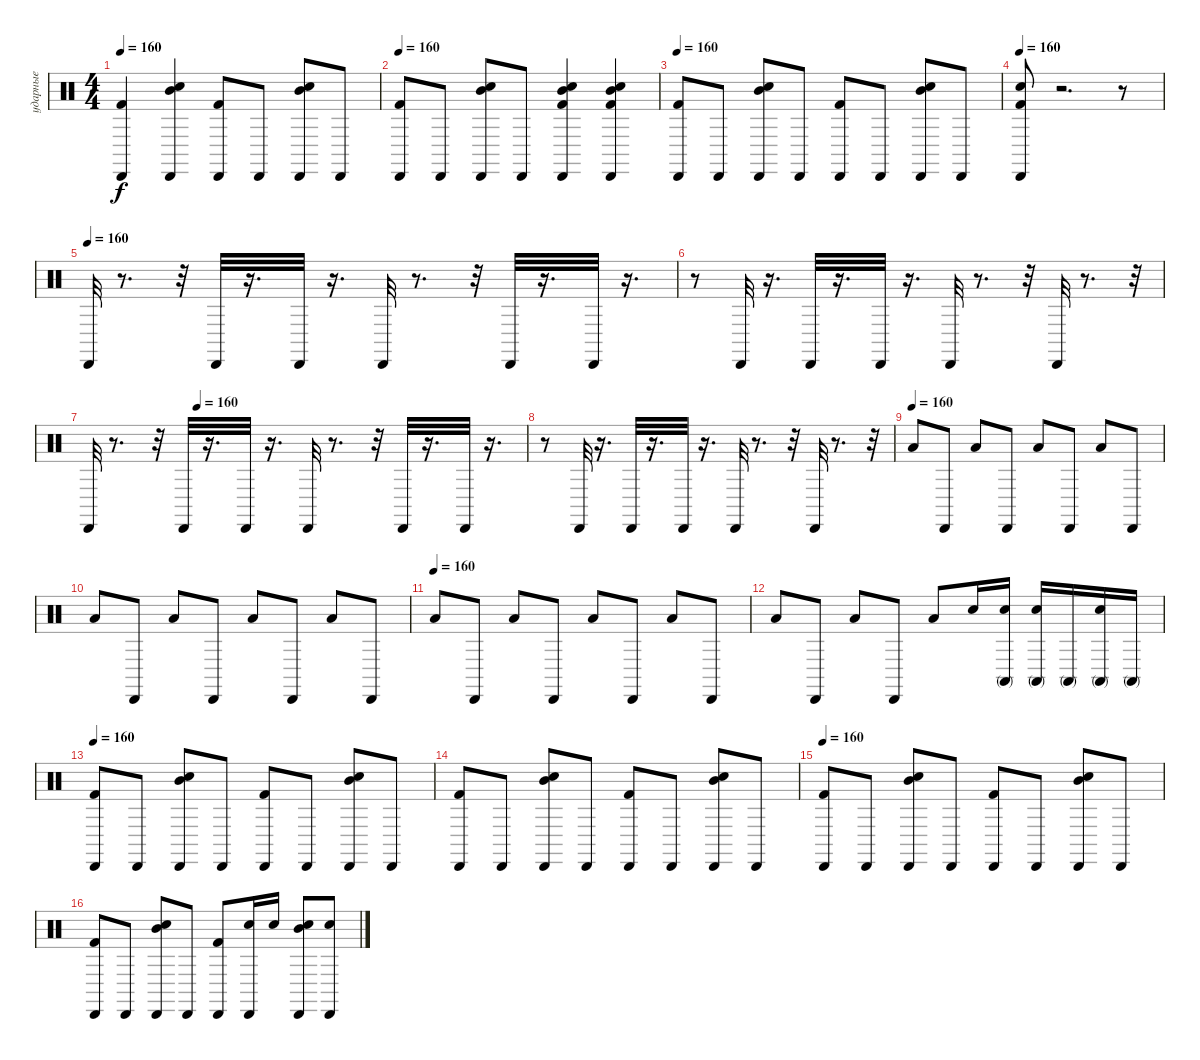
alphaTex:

\track ("ударные" "ударные") {instrument percussion}
\staff {score}
\articulation defaults
\ts (4 4)
\tempo 160
\clef neutral
\ks c
("Cabasa (hit)" "Kick (hit) 2").4{dy f} ("Electric Snare (hit)" "Cabasa (hit)" "Mid Tom (hit)").4 ("Cabasa (hit)" "Kick (hit) 2").8 "Cabasa (hit)".8 ("Mid Tom (hit)" "Electric Snare (hit)" "Cabasa (hit)").8 "Cabasa (hit)".8 |
\tempo 160
("Kick (hit) 2" "Cabasa (hit)").8 "Cabasa (hit)".8 ("Electric Snare (hit)" "Mid Tom (hit)" "Cabasa (hit)").8 "Cabasa (hit)".8 ("Mid Tom (hit)" "Electric Snare (hit)" "Cabasa (hit)" "Kick (hit) 2").4 ("Kick (hit) 2" "Cabasa (hit)" "Electric Snare (hit)" "Mid Tom (hit)").4 |
\tempo 160
("Cabasa (hit)" "Kick (hit) 2").8 "Cabasa (hit)".8 ("Electric Snare (hit)" "Cabasa (hit)" "Mid Tom (hit)").8 "Cabasa (hit)".8 ("Cabasa (hit)" "Kick (hit) 2").8 "Cabasa (hit)".8 ("Mid Tom (hit)" "Electric Snare (hit)" "Cabasa (hit)").8 "Cabasa (hit)".8 |
\tempo 160
("Kick (hit) 2" "Electric Snare (hit)" "Cabasa (hit)").8 r.2{d} r.8 |
\tempo (160)
"Cabasa (hit)".32 r.8{d} r.32 "Cabasa (hit)".32 r.16{d} "Cabasa (hit)".32 r.16{d} "Cabasa (hit)".32 r.8{d} r.32 "Cabasa (hit)".32 r.16{d} "Cabasa (hit)".32 r.16{d} |
r.8 "Cabasa (hit)".32 r.16{d} "Cabasa (hit)".32 r.16{d} "Cabasa (hit)".32 r.16{d} "Cabasa (hit)".32 r.8{d} r.32 "Cabasa (hit)".32 r.8{d} r.32 |
\tempo (160 0.25)
"Cabasa (hit)".32 r.8{d} r.32 "Cabasa (hit)".32 r.16{d} "Cabasa (hit)".32 r.16{d} "Cabasa (hit)".32 r.8{d} r.32 "Cabasa (hit)".32 r.16{d} "Cabasa (hit)".32 r.16{d} |
r.8 "Cabasa (hit)".32 r.16{d} "Cabasa (hit)".32 r.16{d} "Cabasa (hit)".32 r.16{d} "Cabasa (hit)".32 r.8{d} r.32 "Cabasa (hit)".32 r.8{d} r.32 |
\tempo (160)
"Low Floor Tom (hit)".8 "Cabasa (hit)".8 "Low Floor Tom (hit)".8 "Cabasa (hit)".8 "Low Floor Tom (hit)".8 "Cabasa (hit)".8 "Low Floor Tom (hit)".8 "Cabasa (hit)".8 |
"Low Floor Tom (hit)".8 "Cabasa (hit)".8 "Low Floor Tom (hit)".8 "Cabasa (hit)".8 "Low Floor Tom (hit)".8 "Cabasa (hit)".8 "Low Floor Tom (hit)".8 "Cabasa (hit)".8 |
\tempo (160)
"Low Floor Tom (hit)".8 "Cabasa (hit)".8 "Low Floor Tom (hit)".8 "Cabasa (hit)".8 "Low Floor Tom (hit)".8 "Cabasa (hit)".8 "Low Floor Tom (hit)".8 "Cabasa (hit)".8 |
"Low Floor Tom (hit)".8 "Cabasa (hit)".8 "Low Floor Tom (hit)".8 "Cabasa (hit)".8 "Low Floor Tom (hit)".8 "Electric Snare (hit)".16 ("Electric Snare (hit)" "Conga high (mute)").16 ("Electric Snare (hit)" "Conga high (mute)").16 "Conga high (mute)".16 ("Electric Snare (hit)" "Conga high (mute)").16 "Conga high (mute)".16 |
\tempo 160
("Kick (hit) 2" "Cabasa (hit)").8 "Cabasa (hit)".8 ("Electric Snare (hit)" "Mid Tom (hit)" "Cabasa (hit)").8 "Cabasa (hit)".8 ("Cabasa (hit)" "Kick (hit) 2").8 "Cabasa (hit)".8 ("Cabasa (hit)" "Electric Snare (hit)" "Mid Tom (hit)").8 "Cabasa (hit)".8 |
("Cabasa (hit)" "Kick (hit) 2").8 "Cabasa (hit)".8 ("Electric Snare (hit)" "Cabasa (hit)" "Mid Tom (hit)").8 "Cabasa (hit)".8 ("Cabasa (hit)" "Kick (hit) 2").8 "Cabasa (hit)".8 ("Mid Tom (hit)" "Electric Snare (hit)" "Cabasa (hit)").8 "Cabasa (hit)".8 |
\tempo 160
("Kick (hit) 2" "Cabasa (hit)").8 "Cabasa (hit)".8 ("Electric Snare (hit)" "Mid Tom (hit)" "Cabasa (hit)").8 "Cabasa (hit)".8 ("Cabasa (hit)" "Kick (hit) 2").8 "Cabasa (hit)".8 ("Cabasa (hit)" "Electric Snare (hit)" "Mid Tom (hit)").8 "Cabasa (hit)".8 |
("Cabasa (hit)" "Kick (hit) 2").8 "Cabasa (hit)".8 ("Electric Snare (hit)" "Cabasa (hit)" "Mid Tom (hit)").8 "Cabasa (hit)".8 ("Cabasa (hit)" "Kick (hit) 2").8 ("Electric Snare (hit)" "Cabasa (hit)").16 "Electric Snare (hit)".16 ("Electric Snare (hit)" "Mid Tom (hit)" "Cabasa (hit)").8 ("Electric Snare (hit)" "Cabasa (hit)").8
